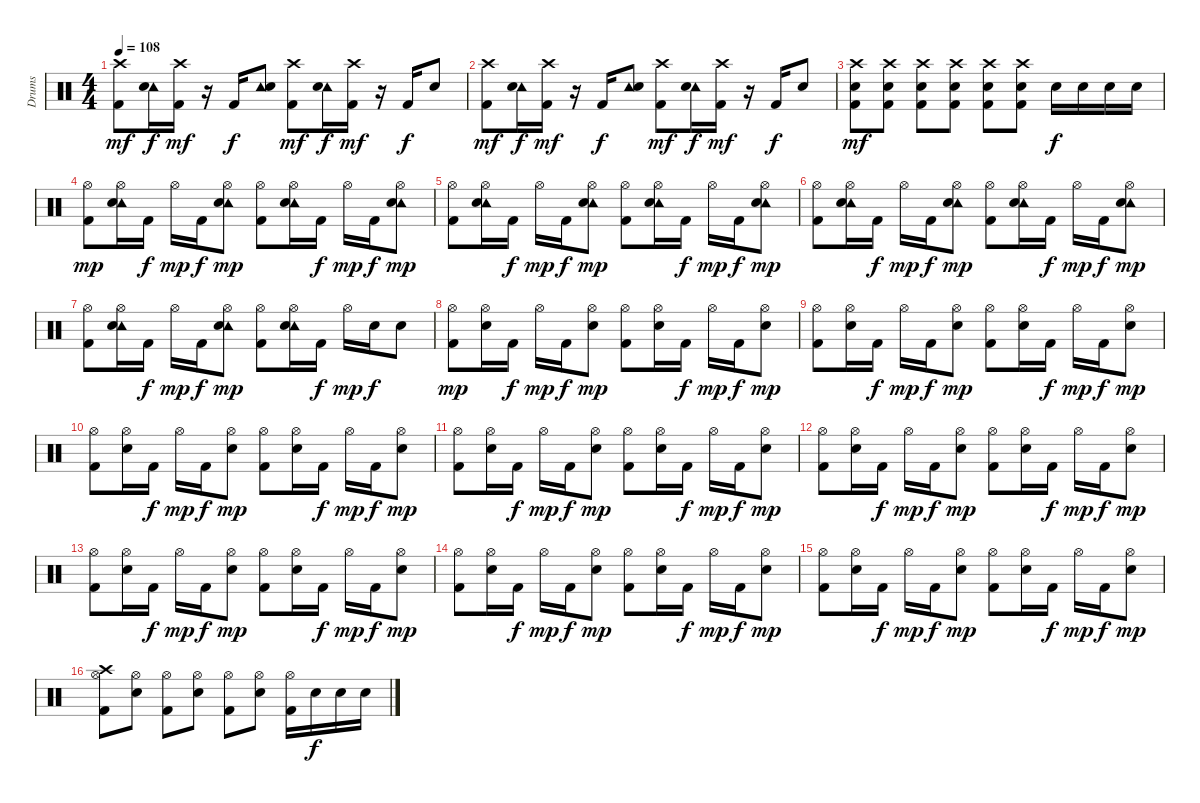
\track ("Drums" "Drums") {instrument percussion}
\staff {score}
\articulation defaults
\ts (4 4)
\tempo 108
\clef neutral
\ks c
("Crash high (hit)" "Kick (hit) 2").8{dy mf} ("Tambourine (hit)" "Snare (hit) 2").16{dy f} ("Crash high (hit)" "Kick (hit) 2").16{dy mf} r.16 "Kick (hit) 2".16{dy f} ("Tambourine (hit)" "Snare (hit) 2").8 ("Crash high (hit)" "Kick (hit) 2").8{dy mf} ("Tambourine (hit)" "Snare (hit) 2").16{dy f} ("Crash high (hit)" "Kick (hit) 2").16{dy mf} r.16 "Kick (hit) 2".16{dy f} "Snare (hit) 2".8 |
("Crash high (hit)" "Kick (hit) 2").8{dy mf} ("Tambourine (hit)" "Snare (hit) 2").16{dy f} ("Crash high (hit)" "Kick (hit) 2").16{dy mf} r.16 "Kick (hit) 2".16{dy f} ("Tambourine (hit)" "Snare (hit) 2").8 ("Crash high (hit)" "Kick (hit) 2").8{dy mf} ("Tambourine (hit)" "Snare (hit) 2").16{dy f} ("Crash high (hit)" "Kick (hit) 2").16{dy mf} r.16 "Kick (hit) 2".16{dy f} "Snare (hit) 2".8 |
("Crash high (hit)" "Snare (hit) 2" "Kick (hit) 2").8{dy mf} ("Crash high (hit)" "Snare (hit) 2" "Kick (hit) 2").8 ("Crash high (hit)" "Snare (hit) 2" "Kick (hit) 2").8 ("Crash high (hit)" "Snare (hit) 2" "Kick (hit) 2").8 ("Crash high (hit)" "Snare (hit) 2" "Kick (hit) 2").8 ("Crash high (hit)" "Snare (hit) 2" "Kick (hit) 2").8 "Snare (hit) 2".16{dy f} "Snare (hit) 2".16 "Snare (hit) 2".16 "Snare (hit) 2".16 |
("Hi-Hat (open)" "Kick (hit) 2").8{dy mp} ("Tambourine (hit)" "Hi-Hat (open)" "Snare (hit) 2").16 "Kick (hit) 2".16{dy f} "Hi-Hat (open)".16{dy mp} "Kick (hit) 2".16{dy f} ("Tambourine (hit)" "Hi-Hat (open)" "Snare (hit) 2").8{dy mp} ("Hi-Hat (open)" "Kick (hit) 2").8 ("Tambourine (hit)" "Hi-Hat (open)" "Snare (hit) 2").16 "Kick (hit) 2".16{dy f} "Hi-Hat (open)".16{dy mp} "Kick (hit) 2".16{dy f} ("Tambourine (hit)" "Hi-Hat (open)" "Snare (hit) 2").8{dy mp} |
("Hi-Hat (open)" "Kick (hit) 2").8 ("Tambourine (hit)" "Hi-Hat (open)" "Snare (hit) 2").16 "Kick (hit) 2".16{dy f} "Hi-Hat (open)".16{dy mp} "Kick (hit) 2".16{dy f} ("Tambourine (hit)" "Hi-Hat (open)" "Snare (hit) 2").8{dy mp} ("Hi-Hat (open)" "Kick (hit) 2").8 ("Tambourine (hit)" "Hi-Hat (open)" "Snare (hit) 2").16 "Kick (hit) 2".16{dy f} "Hi-Hat (open)".16{dy mp} "Kick (hit) 2".16{dy f} ("Tambourine (hit)" "Hi-Hat (open)" "Snare (hit) 2").8{dy mp} |
("Hi-Hat (open)" "Kick (hit) 2").8 ("Tambourine (hit)" "Hi-Hat (open)" "Snare (hit) 2").16 "Kick (hit) 2".16{dy f} "Hi-Hat (open)".16{dy mp} "Kick (hit) 2".16{dy f} ("Tambourine (hit)" "Hi-Hat (open)" "Snare (hit) 2").8{dy mp} ("Hi-Hat (open)" "Kick (hit) 2").8 ("Tambourine (hit)" "Hi-Hat (open)" "Snare (hit) 2").16 "Kick (hit) 2".16{dy f} "Hi-Hat (open)".16{dy mp} "Kick (hit) 2".16{dy f} ("Tambourine (hit)" "Hi-Hat (open)" "Snare (hit) 2").8{dy mp} |
("Hi-Hat (open)" "Kick (hit) 2").8 ("Tambourine (hit)" "Hi-Hat (open)" "Snare (hit) 2").16 "Kick (hit) 2".16{dy f} "Hi-Hat (open)".16{dy mp} "Kick (hit) 2".16{dy f} ("Tambourine (hit)" "Hi-Hat (open)" "Snare (hit) 2").8{dy mp} ("Hi-Hat (open)" "Kick (hit) 2").8 ("Tambourine (hit)" "Hi-Hat (open)" "Snare (hit) 2").16 "Kick (hit) 2".16{dy f} "Hi-Hat (open)".16{dy mp} "Snare (hit) 2".16{dy f} "Snare (hit) 2".8 |
("Hi-Hat (open)" "Kick (hit) 2").8{dy mp} ("Hi-Hat (open)" "Snare (hit) 2").16 "Kick (hit) 2".16{dy f} "Hi-Hat (open)".16{dy mp} "Kick (hit) 2".16{dy f} ("Hi-Hat (open)" "Snare (hit) 2").8{dy mp} ("Hi-Hat (open)" "Kick (hit) 2").8 ("Hi-Hat (open)" "Snare (hit) 2").16 "Kick (hit) 2".16{dy f} "Hi-Hat (open)".16{dy mp} "Kick (hit) 2".16{dy f} ("Hi-Hat (open)" "Snare (hit) 2").8{dy mp} |
("Hi-Hat (open)" "Kick (hit) 2").8 ("Hi-Hat (open)" "Snare (hit) 2").16 "Kick (hit) 2".16{dy f} "Hi-Hat (open)".16{dy mp} "Kick (hit) 2".16{dy f} ("Hi-Hat (open)" "Snare (hit) 2").8{dy mp} ("Hi-Hat (open)" "Kick (hit) 2").8 ("Hi-Hat (open)" "Snare (hit) 2").16 "Kick (hit) 2".16{dy f} "Hi-Hat (open)".16{dy mp} "Kick (hit) 2".16{dy f} ("Hi-Hat (open)" "Snare (hit) 2").8{dy mp} |
("Hi-Hat (open)" "Kick (hit) 2").8 ("Hi-Hat (open)" "Snare (hit) 2").16 "Kick (hit) 2".16{dy f} "Hi-Hat (open)".16{dy mp} "Kick (hit) 2".16{dy f} ("Hi-Hat (open)" "Snare (hit) 2").8{dy mp} ("Hi-Hat (open)" "Kick (hit) 2").8 ("Hi-Hat (open)" "Snare (hit) 2").16 "Kick (hit) 2".16{dy f} "Hi-Hat (open)".16{dy mp} "Kick (hit) 2".16{dy f} ("Hi-Hat (open)" "Snare (hit) 2").8{dy mp} |
("Hi-Hat (open)" "Kick (hit) 2").8 ("Hi-Hat (open)" "Snare (hit) 2").16 "Kick (hit) 2".16{dy f} "Hi-Hat (open)".16{dy mp} "Kick (hit) 2".16{dy f} ("Hi-Hat (open)" "Snare (hit) 2").8{dy mp} ("Hi-Hat (open)" "Kick (hit) 2").8 ("Hi-Hat (open)" "Snare (hit) 2").16 "Kick (hit) 2".16{dy f} "Hi-Hat (open)".16{dy mp} "Kick (hit) 2".16{dy f} ("Hi-Hat (open)" "Snare (hit) 2").8{dy mp} |
("Hi-Hat (open)" "Kick (hit) 2").8 ("Hi-Hat (open)" "Snare (hit) 2").16 "Kick (hit) 2".16{dy f} "Hi-Hat (open)".16{dy mp} "Kick (hit) 2".16{dy f} ("Hi-Hat (open)" "Snare (hit) 2").8{dy mp} ("Hi-Hat (open)" "Kick (hit) 2").8 ("Hi-Hat (open)" "Snare (hit) 2").16 "Kick (hit) 2".16{dy f} "Hi-Hat (open)".16{dy mp} "Kick (hit) 2".16{dy f} ("Hi-Hat (open)" "Snare (hit) 2").8{dy mp} |
("Hi-Hat (open)" "Kick (hit) 2").8 ("Hi-Hat (open)" "Snare (hit) 2").16 "Kick (hit) 2".16{dy f} "Hi-Hat (open)".16{dy mp} "Kick (hit) 2".16{dy f} ("Hi-Hat (open)" "Snare (hit) 2").8{dy mp} ("Hi-Hat (open)" "Kick (hit) 2").8 ("Hi-Hat (open)" "Snare (hit) 2").16 "Kick (hit) 2".16{dy f} "Hi-Hat (open)".16{dy mp} "Kick (hit) 2".16{dy f} ("Hi-Hat (open)" "Snare (hit) 2").8{dy mp} |
("Hi-Hat (open)" "Kick (hit) 2").8 ("Hi-Hat (open)" "Snare (hit) 2").16 "Kick (hit) 2".16{dy f} "Hi-Hat (open)".16{dy mp} "Kick (hit) 2".16{dy f} ("Hi-Hat (open)" "Snare (hit) 2").8{dy mp} ("Hi-Hat (open)" "Kick (hit) 2").8 ("Hi-Hat (open)" "Snare (hit) 2").16 "Kick (hit) 2".16{dy f} "Hi-Hat (open)".16{dy mp} "Kick (hit) 2".16{dy f} ("Hi-Hat (open)" "Snare (hit) 2").8{dy mp} |
("Hi-Hat (open)" "Kick (hit) 2").8 ("Hi-Hat (open)" "Snare (hit) 2").16 "Kick (hit) 2".16{dy f} "Hi-Hat (open)".16{dy mp} "Kick (hit) 2".16{dy f} ("Hi-Hat (open)" "Snare (hit) 2").8{dy mp} ("Hi-Hat (open)" "Kick (hit) 2").8 ("Hi-Hat (open)" "Snare (hit) 2").16 "Kick (hit) 2".16{dy f} "Hi-Hat (open)".16{dy mp} "Kick (hit) 2".16{dy f} ("Hi-Hat (open)" "Snare (hit) 2").8{dy mp} |
("Crash high (hit)" "Hi-Hat (open)" "Kick (hit) 2").8 ("Hi-Hat (open)" "Snare (hit) 2").8 ("Hi-Hat (open)" "Kick (hit) 2").8 ("Hi-Hat (open)" "Snare (hit) 2").8 ("Hi-Hat (open)" "Kick (hit) 2").8 ("Hi-Hat (open)" "Snare (hit) 2").8 ("Hi-Hat (open)" "Kick (hit) 2").16 "Snare (hit) 2".16{dy f} "Snare (hit) 2".16 "Snare (hit) 2".16
